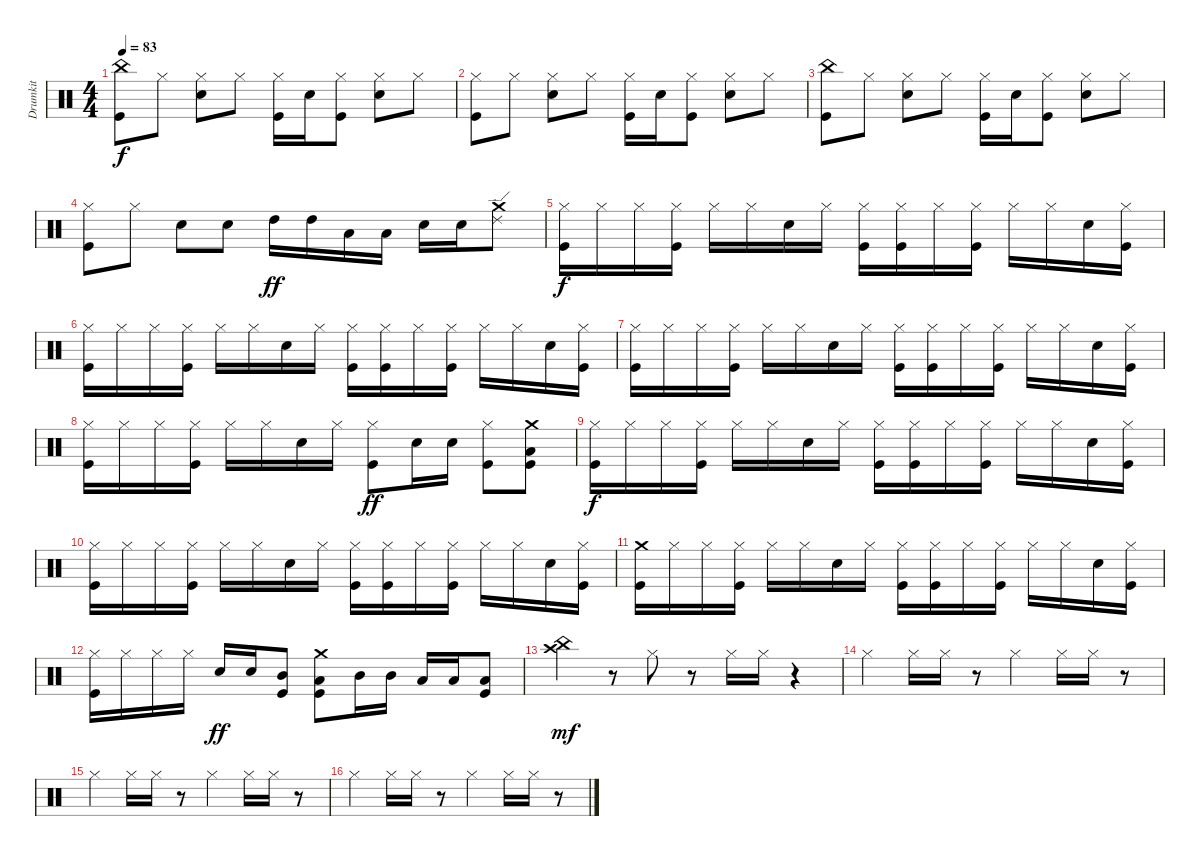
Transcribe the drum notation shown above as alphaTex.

\track ("Drumkit" "Drumkit") {instrument percussion}
\staff {score}
\articulation defaults
\ts (4 4)
\tempo 83
\clef neutral
\ks c
("Kick (hit)" "China (hit)").8{dy f} "Hi-Hat (closed)".8 ("Snare (hit) 2" "Hi-Hat (closed)").8 "Hi-Hat (closed)".8 ("Kick (hit)" "Hi-Hat (closed)").16 "Snare (hit) 2".16 ("Kick (hit)" "Hi-Hat (closed)").8 ("Snare (hit) 2" "Hi-Hat (closed)").8 "Hi-Hat (closed)".8 |
("Kick (hit)" "Hi-Hat (closed)").8 "Hi-Hat (closed)".8 ("Snare (hit) 2" "Hi-Hat (closed)").8 "Hi-Hat (closed)".8 ("Kick (hit)" "Hi-Hat (closed)").16 "Snare (hit) 2".16 ("Kick (hit)" "Hi-Hat (closed)").8 ("Snare (hit) 2" "Hi-Hat (closed)").8 "Hi-Hat (closed)".8 |
("Kick (hit)" "China (hit)").8 "Hi-Hat (closed)".8 ("Snare (hit) 2" "Hi-Hat (closed)").8 "Hi-Hat (closed)".8 ("Kick (hit)" "Hi-Hat (closed)").16 "Snare (hit) 2".16 ("Kick (hit)" "Hi-Hat (closed)").8 ("Snare (hit) 2" "Hi-Hat (closed)").8 "Hi-Hat (closed)".8 |
("Kick (hit)" "Hi-Hat (closed)").8 "Hi-Hat (closed)".8 "Snare (hit) 2".8 "Snare (hit) 2".8 "High Tom (hit)".16{dy ff} "High Tom (hit)".16 "Low Tom (hit)".16 "Low Tom (hit)".16 "Snare (hit) 2".16 "Snare (hit) 2".16 ("Crash medium (hit)" "Ride (edge) 2").8 |
("Kick (hit)" "Hi-Hat (closed)").16{dy f} "Hi-Hat (closed)".16 "Hi-Hat (closed)".16 ("Hi-Hat (closed)" "Kick (hit)").16 "Hi-Hat (closed)".16 "Hi-Hat (closed)".16 "Snare (hit) 2".16 "Hi-Hat (closed)".16 ("Kick (hit)" "Hi-Hat (closed)").16 ("Hi-Hat (closed)" "Kick (hit)").16 "Hi-Hat (closed)".16 ("Hi-Hat (closed)" "Kick (hit)").16 "Hi-Hat (closed)".16 "Hi-Hat (closed)".16 "Snare (hit) 2".16 ("Hi-Hat (closed)" "Kick (hit)").16 |
("Kick (hit)" "Hi-Hat (closed)").16 "Hi-Hat (closed)".16 "Hi-Hat (closed)".16 ("Hi-Hat (closed)" "Kick (hit)").16 "Hi-Hat (closed)".16 "Hi-Hat (closed)".16 "Snare (hit) 2".16 "Hi-Hat (closed)".16 ("Kick (hit)" "Hi-Hat (closed)").16 ("Hi-Hat (closed)" "Kick (hit)").16 "Hi-Hat (closed)".16 ("Hi-Hat (closed)" "Kick (hit)").16 "Hi-Hat (closed)".16 "Hi-Hat (closed)".16 "Snare (hit) 2".16 ("Hi-Hat (closed)" "Kick (hit)").16 |
("Kick (hit)" "Hi-Hat (closed)").16 "Hi-Hat (closed)".16 "Hi-Hat (closed)".16 ("Hi-Hat (closed)" "Kick (hit)").16 "Hi-Hat (closed)".16 "Hi-Hat (closed)".16 "Snare (hit) 2".16 "Hi-Hat (closed)".16 ("Kick (hit)" "Hi-Hat (closed)").16 ("Hi-Hat (closed)" "Kick (hit)").16 "Hi-Hat (closed)".16 ("Hi-Hat (closed)" "Kick (hit)").16 "Hi-Hat (closed)".16 "Hi-Hat (closed)".16 "Snare (hit) 2".16 ("Hi-Hat (closed)" "Kick (hit)").16 |
("Kick (hit)" "Hi-Hat (closed)").16 "Hi-Hat (closed)".16 "Hi-Hat (closed)".16 ("Hi-Hat (closed)" "Kick (hit)").16 "Hi-Hat (closed)".16 "Hi-Hat (closed)".16 "Snare (hit) 2".16 "Hi-Hat (closed)".16 ("Kick (hit)" "Hi-Hat (closed)").8{dy ff} "Snare (hit) 2".16 "Snare (hit) 2".16 ("Kick (hit)" "Hi-Hat (closed)").8 ("Low Tom (hit)" "Kick (hit)" "Crash medium (hit)").8 |
("Kick (hit)" "Hi-Hat (closed)").16{dy f} "Hi-Hat (closed)".16 "Hi-Hat (closed)".16 ("Hi-Hat (closed)" "Kick (hit)").16 "Hi-Hat (closed)".16 "Hi-Hat (closed)".16 "Snare (hit) 2".16 "Hi-Hat (closed)".16 ("Kick (hit)" "Hi-Hat (closed)").16 ("Hi-Hat (closed)" "Kick (hit)").16 "Hi-Hat (closed)".16 ("Hi-Hat (closed)" "Kick (hit)").16 "Hi-Hat (closed)".16 "Hi-Hat (closed)".16 "Snare (hit) 2".16 ("Hi-Hat (closed)" "Kick (hit)").16 |
("Kick (hit)" "Hi-Hat (closed)").16 "Hi-Hat (closed)".16 "Hi-Hat (closed)".16 ("Hi-Hat (closed)" "Kick (hit)").16 "Hi-Hat (closed)".16 "Hi-Hat (closed)".16 "Snare (hit) 2".16 "Hi-Hat (closed)".16 ("Kick (hit)" "Hi-Hat (closed)").16 ("Hi-Hat (closed)" "Kick (hit)").16 "Hi-Hat (closed)".16 ("Hi-Hat (closed)" "Kick (hit)").16 "Hi-Hat (closed)".16 "Hi-Hat (closed)".16 "Snare (hit) 2".16 ("Hi-Hat (closed)" "Kick (hit)").16 |
("Kick (hit)" "Crash medium (hit)").16 "Hi-Hat (closed)".16 "Hi-Hat (closed)".16 ("Hi-Hat (closed)" "Kick (hit)").16 "Hi-Hat (closed)".16 "Hi-Hat (closed)".16 "Snare (hit) 2".16 "Hi-Hat (closed)".16 ("Kick (hit)" "Hi-Hat (closed)").16 ("Hi-Hat (closed)" "Kick (hit)").16 "Hi-Hat (closed)".16 ("Hi-Hat (closed)" "Kick (hit)").16 "Hi-Hat (closed)".16 "Hi-Hat (closed)".16 "Snare (hit) 2".16 ("Hi-Hat (closed)" "Kick (hit)").16 |
("Kick (hit)" "Hi-Hat (closed)").16 "Hi-Hat (closed)".16 "Hi-Hat (closed)".16 "Hi-Hat (closed)".16 "Snare (hit) 2".16{dy ff} "Snare (hit) 2".16 ("Kick (hit)" "Mid Tom (hit)").8 ("Low Tom (hit)" "Kick (hit)" "Crash medium (hit)").8 "Mid Tom (hit)".16 "Mid Tom (hit)".16 "Low Tom (hit)".16 "Low Tom (hit)".16 ("Low Floor Tom (hit)" "Kick (hit)").8 |
("China (hit)" "Crash high (hit)").4{dy mf} r.8 "Hi-Hat (closed)".8 r.8 "Hi-Hat (closed)".16 "Hi-Hat (closed)".16 r.4 |
"Hi-Hat (closed)".4 "Hi-Hat (closed)".16 "Hi-Hat (closed)".16 r.8 "Hi-Hat (closed)".4 "Hi-Hat (closed)".16 "Hi-Hat (closed)".16 r.8 |
"Hi-Hat (closed)".4 "Hi-Hat (closed)".16 "Hi-Hat (closed)".16 r.8 "Hi-Hat (closed)".4 "Hi-Hat (closed)".16 "Hi-Hat (closed)".16 r.8 |
"Hi-Hat (closed)".4 "Hi-Hat (closed)".16 "Hi-Hat (closed)".16 r.8 "Hi-Hat (closed)".4 "Hi-Hat (closed)".16 "Hi-Hat (closed)".16 r.8
